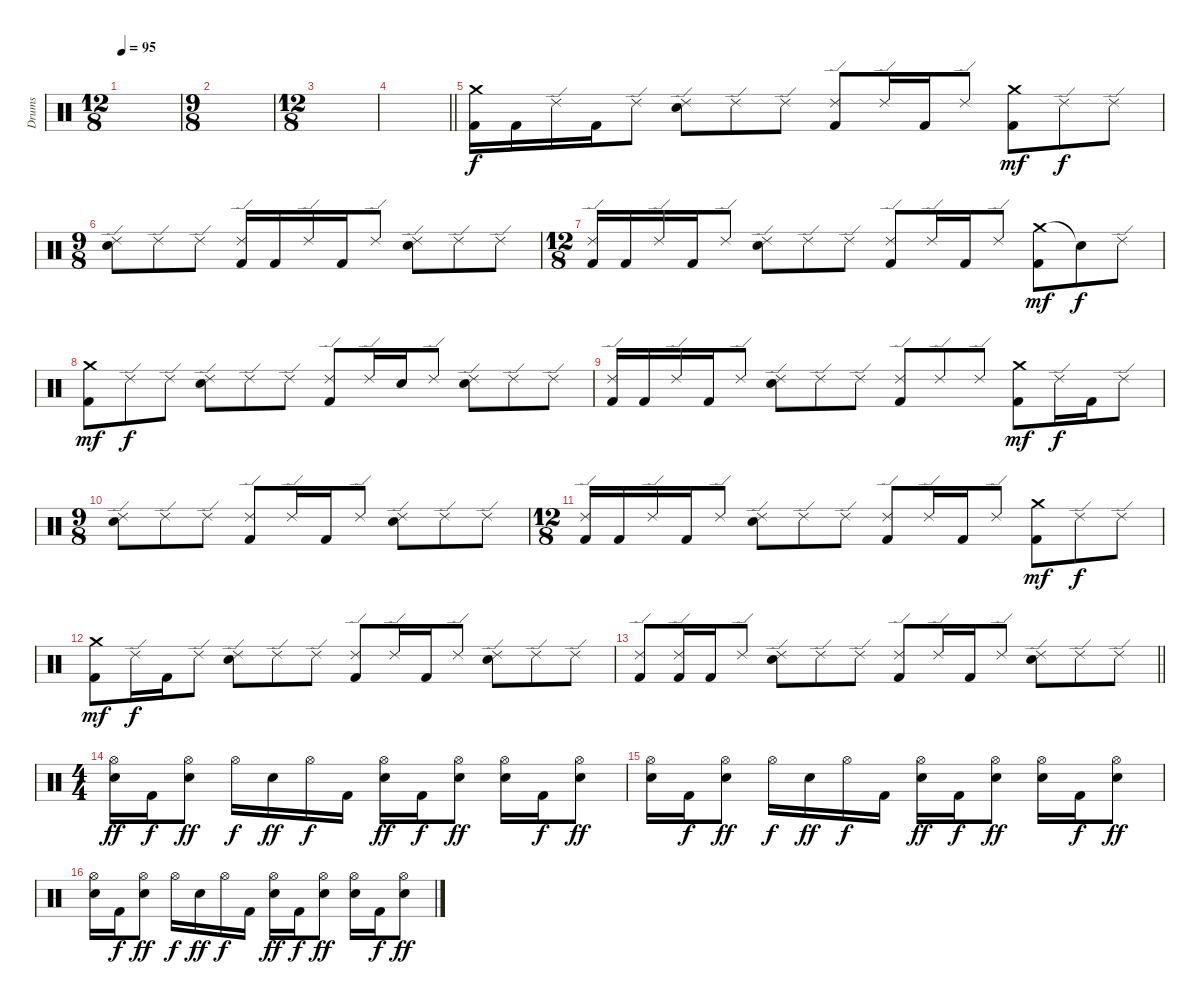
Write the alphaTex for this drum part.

\track ("Drums" "Drums") {instrument percussion}
\staff {score}
\articulation defaults
\ts (12 8)
\tempo 95
\clef neutral
\ks c
|
\ts (9 8)
|
\ts (12 8)
|
\barLineRight lightlight
|
\section ("" "")
("Crash medium (hit)" "Kick (hit) 2").16 "Kick (hit) 2".16{dy f} "Ride (edge) 2".16 "Kick (hit) 2".16 "Ride (edge) 2".8 ("Ride (edge) 2" "Snare (hit) 2").8 "Ride (edge) 2".8 "Ride (edge) 2".8 ("Ride (edge) 2" "Kick (hit) 2").8 "Ride (edge) 2".16 "Kick (hit) 2".16 "Ride (edge) 2".8 ("Crash medium (hit)" "Kick (hit) 2").8{dy mf} "Ride (edge) 2".8{dy f} "Ride (edge) 2".8 |
\ts (9 8)
("Ride (edge) 2" "Snare (hit) 2").8 "Ride (edge) 2".8 "Ride (edge) 2".8 ("Ride (edge) 2" "Kick (hit) 2").16 "Kick (hit) 2".16 "Ride (edge) 2".16 "Kick (hit) 2".16 "Ride (edge) 2".8 ("Ride (edge) 2" "Snare (hit) 2").8 "Ride (edge) 2".8 "Ride (edge) 2".8 |
\ts (12 8)
("Ride (edge) 2" "Kick (hit) 2").16 "Kick (hit) 2".16 "Ride (edge) 2".16 "Kick (hit) 2".16 "Ride (edge) 2".8 ("Ride (edge) 2" "Snare (hit) 2").8 "Ride (edge) 2".8 "Ride (edge) 2".8 ("Ride (edge) 2" "Kick (hit) 2").8 "Ride (edge) 2".16 "Kick (hit) 2".16 "Ride (edge) 2".8 ("Crash medium (hit)" "Kick (hit) 2").8{dy mf} "Snare (hit)"{t}.8{dy f} "Ride (edge) 2".8 |
("Crash medium (hit)" "Kick (hit) 2").8{dy mf} "Ride (edge) 2".8{dy f} "Ride (edge) 2".8 ("Ride (edge) 2" "Snare (hit) 2").8 "Ride (edge) 2".8 "Ride (edge) 2".8 ("Ride (edge) 2" "Kick (hit) 2").8 "Ride (edge) 2".16 "Snare (hit) 2".16 "Ride (edge) 2".8 ("Ride (edge) 2" "Snare (hit) 2").8 "Ride (edge) 2".8 "Ride (edge) 2".8 |
("Ride (edge) 2" "Kick (hit) 2").16 "Kick (hit) 2".16 "Ride (edge) 2".16 "Kick (hit) 2".16 "Ride (edge) 2".8 ("Ride (edge) 2" "Snare (hit) 2").8 "Ride (edge) 2".8 "Ride (edge) 2".8 ("Ride (edge) 2" "Kick (hit) 2").8 "Ride (edge) 2".8 "Ride (edge) 2".8 ("Crash medium (hit)" "Kick (hit) 2").8{dy mf} "Ride (edge) 2".16{dy f} "Kick (hit) 2".16 "Ride (edge) 2".8 |
\ts (9 8)
("Ride (edge) 2" "Snare (hit) 2").8 "Ride (edge) 2".8 "Ride (edge) 2".8 ("Ride (edge) 2" "Kick (hit) 2").8 "Ride (edge) 2".16 "Kick (hit) 2".16 "Ride (edge) 2".8 ("Ride (edge) 2" "Snare (hit) 2").8 "Ride (edge) 2".8 "Ride (edge) 2".8 |
\ts (12 8)
("Ride (edge) 2" "Kick (hit) 2").16 "Kick (hit) 2".16 "Ride (edge) 2".16 "Kick (hit) 2".16 "Ride (edge) 2".8 ("Ride (edge) 2" "Snare (hit) 2").8 "Ride (edge) 2".8 "Ride (edge) 2".8 ("Ride (edge) 2" "Kick (hit) 2").8 "Ride (edge) 2".16 "Kick (hit) 2".16 "Ride (edge) 2".8 ("Crash medium (hit)" "Kick (hit) 2").8{dy mf} "Ride (edge) 2".8{dy f} "Ride (edge) 2".8 |
("Crash medium (hit)" "Kick (hit) 2").8{dy mf} "Ride (edge) 2".16{dy f} "Kick (hit) 2".16 "Ride (edge) 2".8 ("Ride (edge) 2" "Snare (hit) 2").8 "Ride (edge) 2".8 "Ride (edge) 2".8 ("Ride (edge) 2" "Kick (hit) 2").8 "Ride (edge) 2".16 "Kick (hit) 2".16 "Ride (edge) 2".8 ("Ride (edge) 2" "Snare (hit) 2").8 "Ride (edge) 2".8 "Ride (edge) 2".8 |
\barLineRight lightlight
("Ride (edge) 2" "Kick (hit) 2").8 ("Ride (edge) 2" "Kick (hit) 2").16 "Kick (hit) 2".16 "Ride (edge) 2".8 ("Ride (edge) 2" "Snare (hit) 2").8 "Ride (edge) 2".8 "Ride (edge) 2".8 ("Ride (edge) 2" "Kick (hit) 2").8 "Ride (edge) 2".16 "Kick (hit) 2".16 "Ride (edge) 2".8 ("Ride (edge) 2" "Snare (hit) 2").8 "Ride (edge) 2".8 "Ride (edge) 2".8 |
\ts (4 4)
\section ("" "")
("Hi-Hat (open)" "Snare (hit) 2").16{dy ff} "Kick (hit) 2".16{dy f} ("Hi-Hat (open)" "Snare (hit) 2").8{dy ff} "Hi-Hat (open)".16{dy f} "Snare (hit) 2".16{dy ff} "Hi-Hat (open)".16{dy f} "Kick (hit) 2".16 ("Hi-Hat (open)" "Snare (hit) 2").16{dy ff} "Kick (hit) 2".16{dy f} ("Hi-Hat (open)" "Snare (hit) 2").8{dy ff} ("Hi-Hat (open)" "Snare (hit) 2").16 "Kick (hit) 2".16{dy f} ("Hi-Hat (open)" "Snare (hit) 2").8{dy ff} |
("Hi-Hat (open)" "Snare (hit) 2").16 "Kick (hit) 2".16{dy f} ("Hi-Hat (open)" "Snare (hit) 2").8{dy ff} "Hi-Hat (open)".16{dy f} "Snare (hit) 2".16{dy ff} "Hi-Hat (open)".16{dy f} "Kick (hit) 2".16 ("Hi-Hat (open)" "Snare (hit) 2").16{dy ff} "Kick (hit) 2".16{dy f} ("Hi-Hat (open)" "Snare (hit) 2").8{dy ff} ("Hi-Hat (open)" "Snare (hit) 2").16 "Kick (hit) 2".16{dy f} ("Hi-Hat (open)" "Snare (hit) 2").8{dy ff} |
("Hi-Hat (open)" "Snare (hit) 2").16 "Kick (hit) 2".16{dy f} ("Hi-Hat (open)" "Snare (hit) 2").8{dy ff} "Hi-Hat (open)".16{dy f} "Snare (hit) 2".16{dy ff} "Hi-Hat (open)".16{dy f} "Kick (hit) 2".16 ("Hi-Hat (open)" "Snare (hit) 2").16{dy ff} "Kick (hit) 2".16{dy f} ("Hi-Hat (open)" "Snare (hit) 2").8{dy ff} ("Hi-Hat (open)" "Snare (hit) 2").16 "Kick (hit) 2".16{dy f} ("Hi-Hat (open)" "Snare (hit) 2").8{dy ff}
